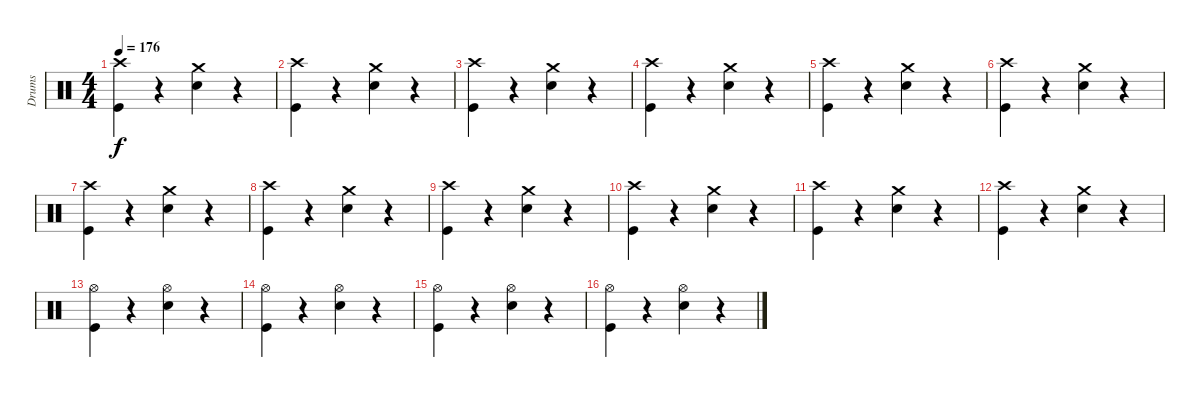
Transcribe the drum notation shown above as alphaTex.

\track ("Drums" "Drums") {instrument percussion}
\staff {score}
\articulation defaults
\ts (4 4)
\tempo 176
\clef neutral
\ks c
("Crash high (hit)" "Kick (hit)").4{dy f} r.4 ("Crash medium (hit)" "Electric Snare (hit)").4 r.4 |
("Crash high (hit)" "Kick (hit)").4 r.4 ("Crash medium (hit)" "Electric Snare (hit)").4 r.4 |
("Crash high (hit)" "Kick (hit)").4 r.4 ("Crash medium (hit)" "Electric Snare (hit)").4 r.4 |
("Crash high (hit)" "Kick (hit)").4 r.4 ("Crash medium (hit)" "Electric Snare (hit)").4 r.4 |
("Crash high (hit)" "Kick (hit)").4 r.4 ("Crash medium (hit)" "Electric Snare (hit)").4 r.4 |
("Crash high (hit)" "Kick (hit)").4 r.4 ("Crash medium (hit)" "Electric Snare (hit)").4 r.4 |
("Crash high (hit)" "Kick (hit)").4 r.4 ("Crash medium (hit)" "Electric Snare (hit)").4 r.4 |
("Crash high (hit)" "Kick (hit)").4 r.4 ("Crash medium (hit)" "Electric Snare (hit)").4 r.4 |
("Crash high (hit)" "Kick (hit)").4 r.4 ("Crash medium (hit)" "Electric Snare (hit)").4 r.4 |
("Crash high (hit)" "Kick (hit)").4 r.4 ("Crash medium (hit)" "Electric Snare (hit)").4 r.4 |
("Crash high (hit)" "Kick (hit)").4 r.4 ("Crash medium (hit)" "Electric Snare (hit)").4 r.4 |
("Crash high (hit)" "Kick (hit)").4 r.4 ("Crash medium (hit)" "Electric Snare (hit)").4 r.4 |
("Hi-Hat (open)" "Kick (hit)").4 r.4 ("Hi-Hat (open)" "Snare (hit) 2").4 r.4 |
("Hi-Hat (open)" "Kick (hit)").4 r.4 ("Hi-Hat (open)" "Electric Snare (hit)").4 r.4 |
("Hi-Hat (open)" "Kick (hit)").4 r.4 ("Hi-Hat (open)" "Snare (hit) 2").4 r.4 |
("Hi-Hat (open)" "Kick (hit)").4 r.4 ("Hi-Hat (open)" "Electric Snare (hit)").4 r.4
